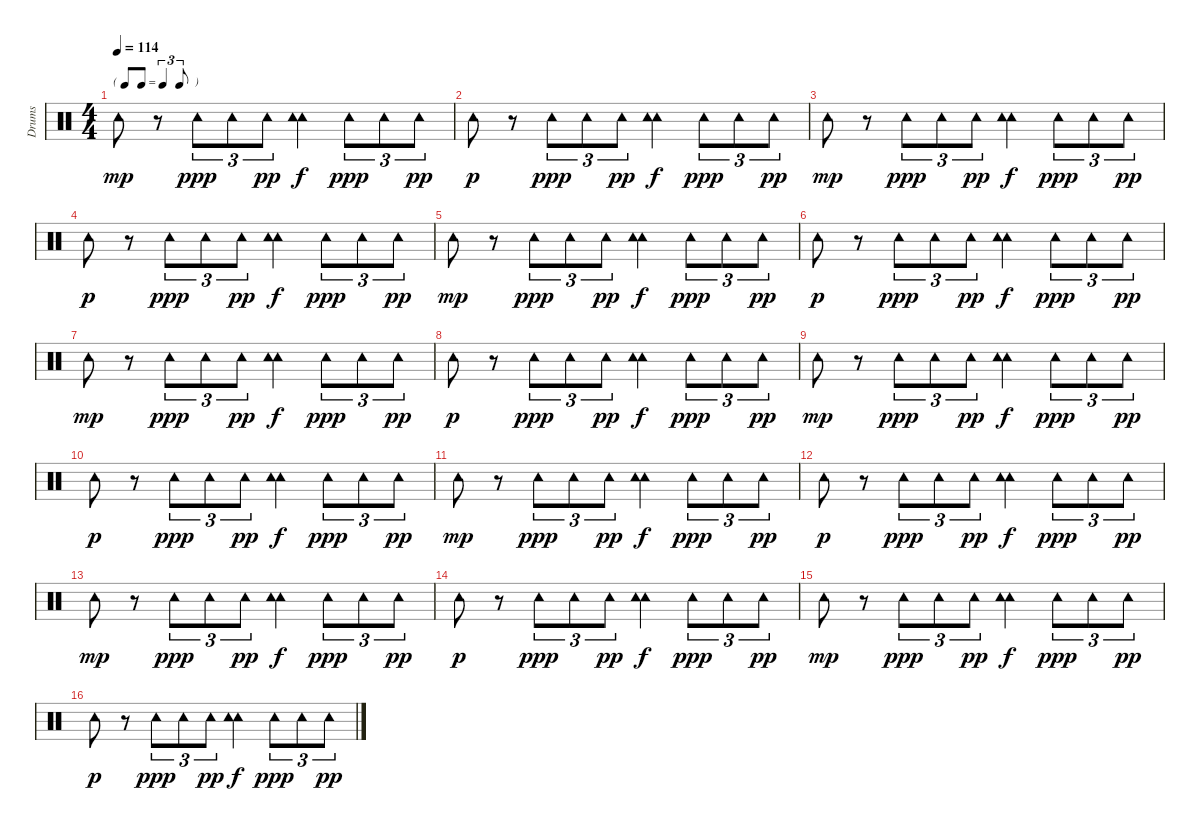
\track ("Drums" "Drums") {instrument percussion}
\staff {score}
\articulation defaults
\ts (4 4)
\tf triplet8th
\tempo 114
\clef neutral
\ks c "Tambourine (hit)".8{dy mp}
r.8 "Tambourine (hit)".8{tu (3 2) dy ppp} "Tambourine (hit)".8{tu (3 2)} "Tambourine (hit)".8{tu (3 2) dy pp} ("Tambourine (hit)" "Tambourine (hit)").4{dy f} "Tambourine (hit)".8{tu (3 2) dy ppp} "Tambourine (hit)".8{tu (3 2)} "Tambourine (hit)".8{tu (3 2) dy pp} |
"Tambourine (hit)".8{dy p} r.8 "Tambourine (hit)".8{tu (3 2) dy ppp} "Tambourine (hit)".8{tu (3 2)} "Tambourine (hit)".8{tu (3 2) dy pp} ("Tambourine (hit)" "Tambourine (hit)").4{dy f} "Tambourine (hit)".8{tu (3 2) dy ppp} "Tambourine (hit)".8{tu (3 2)} "Tambourine (hit)".8{tu (3 2) dy pp} |
"Tambourine (hit)".8{dy mp} r.8 "Tambourine (hit)".8{tu (3 2) dy ppp} "Tambourine (hit)".8{tu (3 2)} "Tambourine (hit)".8{tu (3 2) dy pp} ("Tambourine (hit)" "Tambourine (hit)").4{dy f} "Tambourine (hit)".8{tu (3 2) dy ppp} "Tambourine (hit)".8{tu (3 2)} "Tambourine (hit)".8{tu (3 2) dy pp} |
"Tambourine (hit)".8{dy p} r.8 "Tambourine (hit)".8{tu (3 2) dy ppp} "Tambourine (hit)".8{tu (3 2)} "Tambourine (hit)".8{tu (3 2) dy pp} ("Tambourine (hit)" "Tambourine (hit)").4{dy f} "Tambourine (hit)".8{tu (3 2) dy ppp} "Tambourine (hit)".8{tu (3 2)} "Tambourine (hit)".8{tu (3 2) dy pp} |
"Tambourine (hit)".8{dy mp} r.8 "Tambourine (hit)".8{tu (3 2) dy ppp} "Tambourine (hit)".8{tu (3 2)} "Tambourine (hit)".8{tu (3 2) dy pp} ("Tambourine (hit)" "Tambourine (hit)").4{dy f} "Tambourine (hit)".8{tu (3 2) dy ppp} "Tambourine (hit)".8{tu (3 2)} "Tambourine (hit)".8{tu (3 2) dy pp} |
"Tambourine (hit)".8{dy p} r.8 "Tambourine (hit)".8{tu (3 2) dy ppp} "Tambourine (hit)".8{tu (3 2)} "Tambourine (hit)".8{tu (3 2) dy pp} ("Tambourine (hit)" "Tambourine (hit)").4{dy f} "Tambourine (hit)".8{tu (3 2) dy ppp} "Tambourine (hit)".8{tu (3 2)} "Tambourine (hit)".8{tu (3 2) dy pp} |
"Tambourine (hit)".8{dy mp} r.8 "Tambourine (hit)".8{tu (3 2) dy ppp} "Tambourine (hit)".8{tu (3 2)} "Tambourine (hit)".8{tu (3 2) dy pp} ("Tambourine (hit)" "Tambourine (hit)").4{dy f} "Tambourine (hit)".8{tu (3 2) dy ppp} "Tambourine (hit)".8{tu (3 2)} "Tambourine (hit)".8{tu (3 2) dy pp} |
"Tambourine (hit)".8{dy p} r.8 "Tambourine (hit)".8{tu (3 2) dy ppp} "Tambourine (hit)".8{tu (3 2)} "Tambourine (hit)".8{tu (3 2) dy pp} ("Tambourine (hit)" "Tambourine (hit)").4{dy f} "Tambourine (hit)".8{tu (3 2) dy ppp} "Tambourine (hit)".8{tu (3 2)} "Tambourine (hit)".8{tu (3 2) dy pp} |
"Tambourine (hit)".8{dy mp} r.8 "Tambourine (hit)".8{tu (3 2) dy ppp} "Tambourine (hit)".8{tu (3 2)} "Tambourine (hit)".8{tu (3 2) dy pp} ("Tambourine (hit)" "Tambourine (hit)").4{dy f} "Tambourine (hit)".8{tu (3 2) dy ppp} "Tambourine (hit)".8{tu (3 2)} "Tambourine (hit)".8{tu (3 2) dy pp} |
"Tambourine (hit)".8{dy p} r.8 "Tambourine (hit)".8{tu (3 2) dy ppp} "Tambourine (hit)".8{tu (3 2)} "Tambourine (hit)".8{tu (3 2) dy pp} ("Tambourine (hit)" "Tambourine (hit)").4{dy f} "Tambourine (hit)".8{tu (3 2) dy ppp} "Tambourine (hit)".8{tu (3 2)} "Tambourine (hit)".8{tu (3 2) dy pp} |
"Tambourine (hit)".8{dy mp} r.8 "Tambourine (hit)".8{tu (3 2) dy ppp} "Tambourine (hit)".8{tu (3 2)} "Tambourine (hit)".8{tu (3 2) dy pp} ("Tambourine (hit)" "Tambourine (hit)").4{dy f} "Tambourine (hit)".8{tu (3 2) dy ppp} "Tambourine (hit)".8{tu (3 2)} "Tambourine (hit)".8{tu (3 2) dy pp} |
"Tambourine (hit)".8{dy p} r.8 "Tambourine (hit)".8{tu (3 2) dy ppp} "Tambourine (hit)".8{tu (3 2)} "Tambourine (hit)".8{tu (3 2) dy pp} ("Tambourine (hit)" "Tambourine (hit)").4{dy f} "Tambourine (hit)".8{tu (3 2) dy ppp} "Tambourine (hit)".8{tu (3 2)} "Tambourine (hit)".8{tu (3 2) dy pp} |
"Tambourine (hit)".8{dy mp} r.8 "Tambourine (hit)".8{tu (3 2) dy ppp} "Tambourine (hit)".8{tu (3 2)} "Tambourine (hit)".8{tu (3 2) dy pp} ("Tambourine (hit)" "Tambourine (hit)").4{dy f} "Tambourine (hit)".8{tu (3 2) dy ppp} "Tambourine (hit)".8{tu (3 2)} "Tambourine (hit)".8{tu (3 2) dy pp} |
"Tambourine (hit)".8{dy p} r.8 "Tambourine (hit)".8{tu (3 2) dy ppp} "Tambourine (hit)".8{tu (3 2)} "Tambourine (hit)".8{tu (3 2) dy pp} ("Tambourine (hit)" "Tambourine (hit)").4{dy f} "Tambourine (hit)".8{tu (3 2) dy ppp} "Tambourine (hit)".8{tu (3 2)} "Tambourine (hit)".8{tu (3 2) dy pp} |
"Tambourine (hit)".8{dy mp} r.8 "Tambourine (hit)".8{tu (3 2) dy ppp} "Tambourine (hit)".8{tu (3 2)} "Tambourine (hit)".8{tu (3 2) dy pp} ("Tambourine (hit)" "Tambourine (hit)").4{dy f} "Tambourine (hit)".8{tu (3 2) dy ppp} "Tambourine (hit)".8{tu (3 2)} "Tambourine (hit)".8{tu (3 2) dy pp} |
"Tambourine (hit)".8{dy p} r.8 "Tambourine (hit)".8{tu (3 2) dy ppp} "Tambourine (hit)".8{tu (3 2)} "Tambourine (hit)".8{tu (3 2) dy pp} ("Tambourine (hit)" "Tambourine (hit)").4{dy f} "Tambourine (hit)".8{tu (3 2) dy ppp} "Tambourine (hit)".8{tu (3 2)} "Tambourine (hit)".8{tu (3 2) dy pp}
